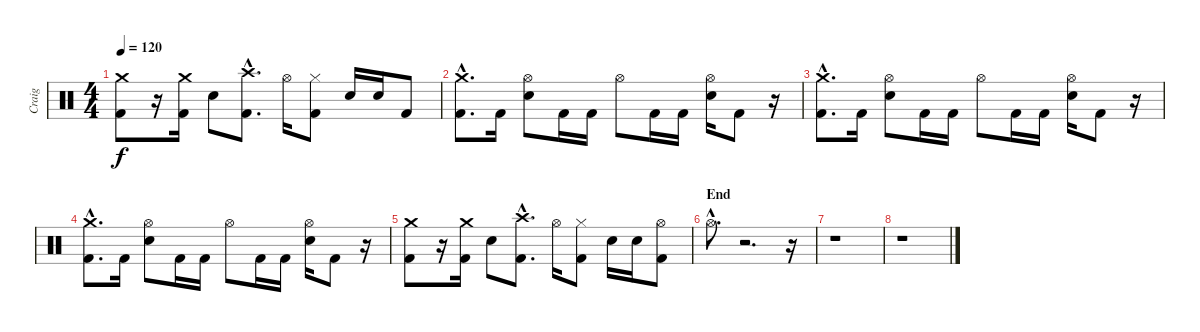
\track ("Craig" "Craig") {instrument percussion}
\staff {score}
\articulation defaults
\ts (4 4)
\tempo 120
\clef neutral
\ks c
("Crash medium (hit)" "Kick (hit) 2").8{dy f} r.16 ("Crash medium (hit)" "Kick (hit) 2").16 "Electric Snare (hit)".8 ("Crash high (hit)"{hac} "Kick (hit) 2"{hac}).8{d} "Hi-Hat (open)".16 ("Hi-Hat (closed)" "Kick (hit) 2").8 "Electric Snare (hit)".16 "Electric Snare (hit)".16 "Kick (hit) 2".8 |
("Crash medium (hit)"{hac} "Kick (hit) 2"{hac}).8{d} "Kick (hit) 2".16 ("Hi-Hat (open)" "Electric Snare (hit)").8 "Kick (hit) 2".16 "Kick (hit) 2".16 "Hi-Hat (open)".8 "Kick (hit) 2".16 "Kick (hit) 2".16 ("Hi-Hat (open)" "Electric Snare (hit)").16 "Kick (hit) 2".8 r.16 |
("Crash medium (hit)"{hac} "Kick (hit) 2"{hac}).8{d} "Kick (hit) 2".16 ("Hi-Hat (open)" "Electric Snare (hit)").8 "Kick (hit) 2".16 "Kick (hit) 2".16 "Hi-Hat (open)".8 "Kick (hit) 2".16 "Kick (hit) 2".16 ("Hi-Hat (open)" "Electric Snare (hit)").16 "Kick (hit) 2".8 r.16 |
("Crash medium (hit)"{hac} "Kick (hit) 2"{hac}).8{d} "Kick (hit) 2".16 ("Hi-Hat (open)" "Electric Snare (hit)").8 "Kick (hit) 2".16 "Kick (hit) 2".16 "Hi-Hat (open)".8 "Kick (hit) 2".16 "Kick (hit) 2".16 ("Hi-Hat (open)" "Electric Snare (hit)").16 "Kick (hit) 2".8 r.16 |
("Crash medium (hit)" "Kick (hit) 2").8 r.16 ("Crash medium (hit)" "Kick (hit) 2").16 "Electric Snare (hit)".8 ("Crash high (hit)"{hac} "Kick (hit) 2"{hac}).8{d} "Hi-Hat (open)".16 ("Hi-Hat (closed)" "Kick (hit) 2").8 "Electric Snare (hit)".16 "Electric Snare (hit)".16 ("Hi-Hat (open)" "Kick (hit) 2").8 |
\section ("" "End")
"Hi-Hat (open)"{hac}.8{d} r.2{d} r.16 |
r.1 |
r.1
